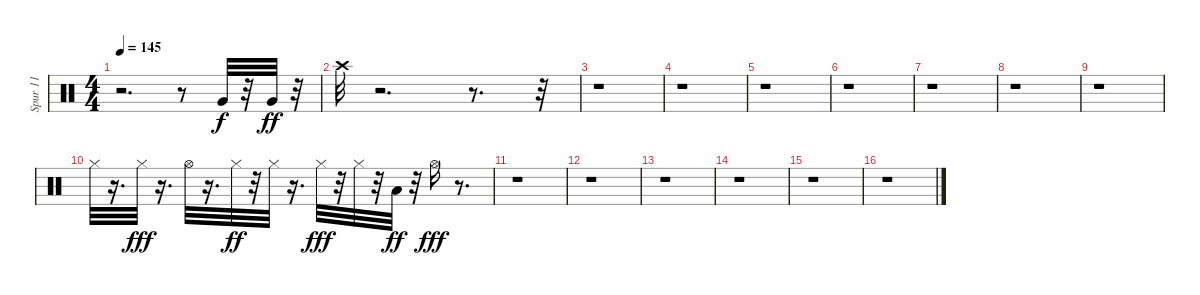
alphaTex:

\track ("Spur 11" "Spur 11") {instrument percussion}
\staff {score}
\articulation defaults
\ts (4 4)
\tempo 145
\clef neutral
\ks c
r.2{d dy fff} r.8 "Very Low Tom (hit)".32{dy f} r.32 "Very Low Tom (hit)".32{dy ff} r.32 |
"Crash high (hit)".32 r.2{d} r.8{d} r.32 |
r.1 |
r.1 |
r.1 |
r.1 |
r.1 |
r.1 |
r.1 |
"Hi-Hat (closed)".32 r.16{d} "Hi-Hat (closed)".32{dy fff} r.16{d} "Hi-Hat (open)".32 r.16{d} "Hi-Hat (closed)".32{dy ff} r.32 "Hi-Hat (closed)".32 r.16{d} "Hi-Hat (closed)".32{dy fff} r.32 "Hi-Hat (closed)".32 r.32 "Low Floor Tom (hit)".32{dy ff} r.32 "Hi-Hat (open)".16{dy fff} r.8{d} |
r.1 |
r.1 |
r.1 |
r.1 |
r.1 |
r.1
